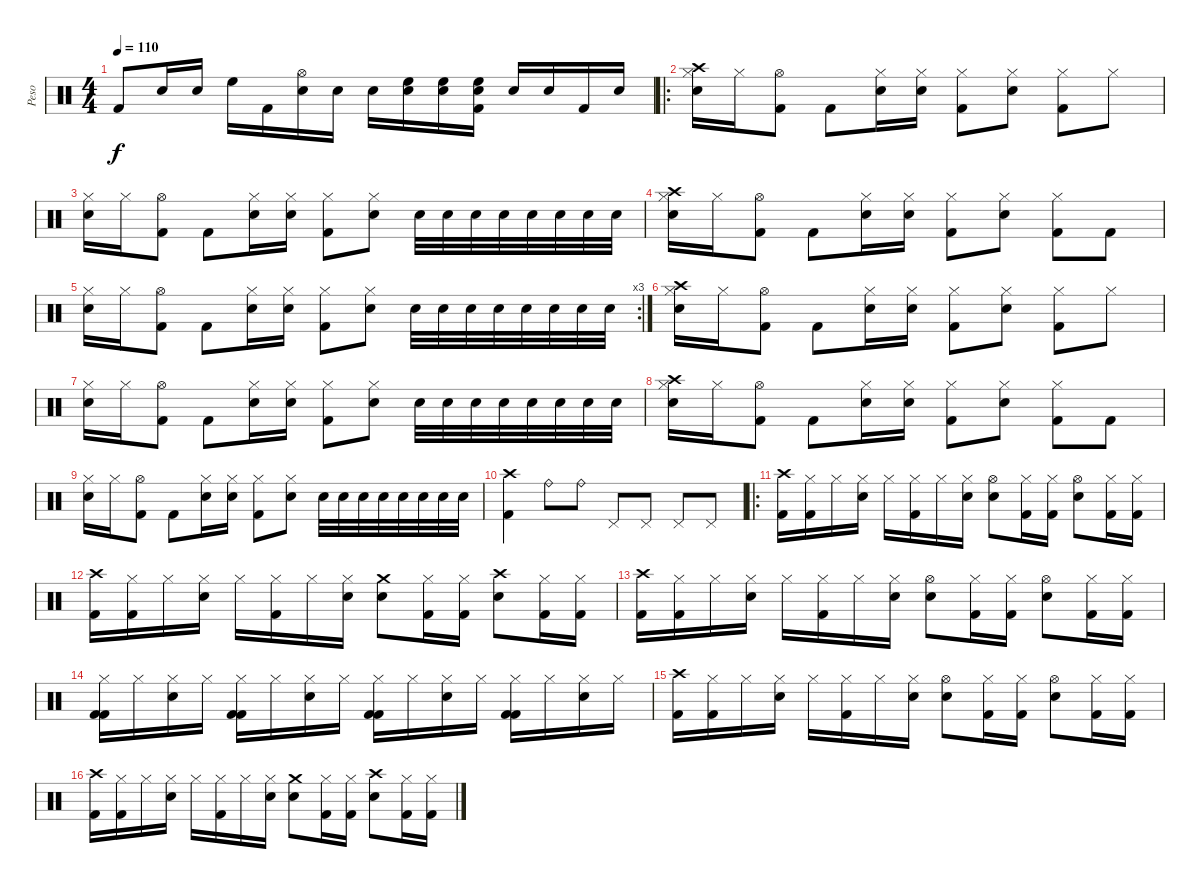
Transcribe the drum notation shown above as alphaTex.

\track ("Peso" "Peso") {instrument percussion}
\staff {score}
\articulation defaults
\ts (4 4)
\tempo 110
\clef neutral
\ks c "Kick (hit) 2".8{dy f} "Snare (hit) 2".16 "Snare (hit) 2".16 "High Floor Tom (hit)".16 "Kick (hit) 2".16
("Hi-Hat (open)" "Snare (hit) 2").16 "Snare (hit) 2".16 "Snare (hit) 2".16 ("Snare (hit) 2" "High Floor Tom (hit)").16 ("High Floor Tom (hit)" "Snare (hit) 2").16 ("Snare (hit) 2" "High Floor Tom (hit)" "Kick (hit) 2").16 "Snare (hit) 2".16 "Snare (hit) 2".16 "Kick (hit) 2".16 "Snare (hit) 2".16 |
\ro
("Crash high (hit)" "Hi-Hat (closed)" "Snare (hit) 2").16 "Hi-Hat (closed)".16 ("Hi-Hat (open)" "Kick (hit) 2").8 "Kick (hit) 2".8 ("Hi-Hat (closed)" "Snare (hit) 2").16 ("Hi-Hat (closed)" "Snare (hit) 2").16 ("Hi-Hat (closed)" "Kick (hit) 2").8 ("Hi-Hat (closed)" "Snare (hit) 2").8 ("Hi-Hat (closed)" "Kick (hit) 2").8 "Hi-Hat (closed)".8 |
("Hi-Hat (closed)" "Snare (hit) 2").16 "Hi-Hat (closed)".16 ("Hi-Hat (open)" "Kick (hit) 2").8 "Kick (hit) 2".8 ("Hi-Hat (closed)" "Snare (hit) 2").16 ("Hi-Hat (closed)" "Snare (hit) 2").16 ("Hi-Hat (closed)" "Kick (hit) 2").8 ("Hi-Hat (closed)" "Snare (hit) 2").8 "Snare (hit) 2".32 "Snare (hit) 2".32 "Snare (hit) 2".32 "Snare (hit) 2".32 "Snare (hit) 2".32 "Snare (hit) 2".32 "Snare (hit) 2".32 "Snare (hit) 2".32 |
("Crash high (hit)" "Hi-Hat (closed)" "Snare (hit) 2").16 "Hi-Hat (closed)".16 ("Hi-Hat (open)" "Kick (hit) 2").8 "Kick (hit) 2".8 ("Hi-Hat (closed)" "Snare (hit) 2").16 ("Hi-Hat (closed)" "Snare (hit) 2").16 ("Hi-Hat (closed)" "Kick (hit) 2").8 ("Hi-Hat (closed)" "Snare (hit) 2").8 ("Hi-Hat (closed)" "Kick (hit) 2").8 "Kick (hit) 2".8 |
\rc 3
("Hi-Hat (closed)" "Snare (hit) 2").16 "Hi-Hat (closed)".16 ("Hi-Hat (open)" "Kick (hit) 2").8 "Kick (hit) 2".8 ("Hi-Hat (closed)" "Snare (hit) 2").16 ("Hi-Hat (closed)" "Snare (hit) 2").16 ("Hi-Hat (closed)" "Kick (hit) 2").8 ("Hi-Hat (closed)" "Snare (hit) 2").8 "Snare (hit) 2".32 "Snare (hit) 2".32 "Snare (hit) 2".32 "Snare (hit) 2".32 "Snare (hit) 2".32 "Snare (hit) 2".32 "Snare (hit) 2".32 "Snare (hit) 2".32 |
("Crash high (hit)" "Hi-Hat (closed)" "Snare (hit) 2").16 "Hi-Hat (closed)".16 ("Hi-Hat (open)" "Kick (hit) 2").8 "Kick (hit) 2".8 ("Hi-Hat (closed)" "Snare (hit) 2").16 ("Hi-Hat (closed)" "Snare (hit) 2").16 ("Hi-Hat (closed)" "Kick (hit) 2").8 ("Hi-Hat (closed)" "Snare (hit) 2").8 ("Hi-Hat (closed)" "Kick (hit) 2").8 "Hi-Hat (closed)".8 |
("Hi-Hat (closed)" "Snare (hit) 2").16 "Hi-Hat (closed)".16 ("Hi-Hat (open)" "Kick (hit) 2").8 "Kick (hit) 2".8 ("Hi-Hat (closed)" "Snare (hit) 2").16 ("Hi-Hat (closed)" "Snare (hit) 2").16 ("Hi-Hat (closed)" "Kick (hit) 2").8 ("Hi-Hat (closed)" "Snare (hit) 2").8 "Snare (hit) 2".32 "Snare (hit) 2".32 "Snare (hit) 2".32 "Snare (hit) 2".32 "Snare (hit) 2".32 "Snare (hit) 2".32 "Snare (hit) 2".32 "Snare (hit) 2".32 |
("Crash high (hit)" "Hi-Hat (closed)" "Snare (hit) 2").16 "Hi-Hat (closed)".16 ("Hi-Hat (open)" "Kick (hit) 2").8 "Kick (hit) 2".8 ("Hi-Hat (closed)" "Snare (hit) 2").16 ("Hi-Hat (closed)" "Snare (hit) 2").16 ("Hi-Hat (closed)" "Kick (hit) 2").8 ("Hi-Hat (closed)" "Snare (hit) 2").8 ("Hi-Hat (closed)" "Kick (hit) 2").8 "Kick (hit) 2".8 |
("Hi-Hat (closed)" "Snare (hit) 2").16 "Hi-Hat (closed)".16 ("Hi-Hat (open)" "Kick (hit) 2").8 "Kick (hit) 2".8 ("Hi-Hat (closed)" "Snare (hit) 2").16 ("Hi-Hat (closed)" "Snare (hit) 2").16 ("Hi-Hat (closed)" "Kick (hit) 2").8 ("Hi-Hat (closed)" "Snare (hit) 2").8 "Snare (hit) 2".32 "Snare (hit) 2".32 "Snare (hit) 2".32 "Snare (hit) 2".32 "Snare (hit) 2".32 "Snare (hit) 2".32 "Snare (hit) 2".32 "Snare (hit) 2".32 |
("Crash high (hit)" "Kick (hit) 2").4 "Ride (bell)"{x}.8 "Ride (bell)"{x}.8 "Pedal Hi-Hat (hit)".8 "Pedal Hi-Hat (hit)".8 "Pedal Hi-Hat (hit)".8 "Pedal Hi-Hat (hit)".8 |
\ro
("Crash high (hit)" "Kick (hit) 2").16 ("Hi-Hat (closed)" "Kick (hit) 2").16 "Hi-Hat (closed)".16 ("Hi-Hat (closed)" "Snare (hit) 2").16 "Hi-Hat (closed)".16 ("Hi-Hat (closed)" "Kick (hit) 2").16 "Hi-Hat (closed)".16 ("Hi-Hat (closed)" "Snare (hit) 2").16 ("Hi-Hat (open)" "Snare (hit) 2").8 ("Hi-Hat (closed)" "Kick (hit) 2").16 ("Hi-Hat (closed)" "Kick (hit) 2").16 ("Hi-Hat (open)" "Snare (hit) 2").8 ("Hi-Hat (closed)" "Kick (hit) 2").16 ("Hi-Hat (closed)" "Kick (hit) 2").16 |
("Crash high (hit)" "Kick (hit) 2").16 ("Hi-Hat (closed)" "Kick (hit) 2").16 "Hi-Hat (closed)".16 ("Hi-Hat (closed)" "Snare (hit) 2").16 "Hi-Hat (closed)".16 ("Hi-Hat (closed)" "Kick (hit) 2").16 "Hi-Hat (closed)".16 ("Hi-Hat (closed)" "Snare (hit) 2").16 ("Crash medium (hit)" "Snare (hit) 2").8 ("Hi-Hat (closed)" "Kick (hit) 2").16 ("Hi-Hat (closed)" "Kick (hit) 2").16 ("Crash high (hit)" "Snare (hit) 2").8 ("Hi-Hat (closed)" "Kick (hit) 2").16 ("Hi-Hat (closed)" "Kick (hit) 2").16 |
("Crash high (hit)" "Kick (hit) 2").16 ("Hi-Hat (closed)" "Kick (hit) 2").16 "Hi-Hat (closed)".16 ("Hi-Hat (closed)" "Snare (hit) 2").16 "Hi-Hat (closed)".16 ("Hi-Hat (closed)" "Kick (hit) 2").16 "Hi-Hat (closed)".16 ("Hi-Hat (closed)" "Snare (hit) 2").16 ("Hi-Hat (open)" "Snare (hit) 2").8 ("Hi-Hat (closed)" "Kick (hit) 2").16 ("Hi-Hat (closed)" "Kick (hit) 2").16 ("Hi-Hat (open)" "Snare (hit) 2").8 ("Hi-Hat (closed)" "Kick (hit) 2").16 ("Hi-Hat (closed)" "Kick (hit) 2").16 |
("Hi-Hat (closed)" "Kick (hit) 2" "Kick (hit) 2").16 "Hi-Hat (closed)".16 ("Hi-Hat (closed)" "Snare (hit) 2").16 "Hi-Hat (closed)".16 ("Hi-Hat (closed)" "Kick (hit) 2" "Kick (hit) 2").16 "Hi-Hat (closed)".16 ("Hi-Hat (closed)" "Snare (hit) 2").16 "Hi-Hat (closed)".16 ("Hi-Hat (closed)" "Kick (hit) 2" "Kick (hit) 2").16 "Hi-Hat (closed)".16 ("Hi-Hat (closed)" "Snare (hit) 2").16 "Hi-Hat (closed)".16 ("Hi-Hat (closed)" "Kick (hit) 2" "Kick (hit) 2").16 "Hi-Hat (closed)".16 ("Hi-Hat (closed)" "Snare (hit) 2").16 "Hi-Hat (closed)".16 |
("Crash high (hit)" "Kick (hit) 2").16 ("Hi-Hat (closed)" "Kick (hit) 2").16 "Hi-Hat (closed)".16 ("Hi-Hat (closed)" "Snare (hit) 2").16 "Hi-Hat (closed)".16 ("Hi-Hat (closed)" "Kick (hit) 2").16 "Hi-Hat (closed)".16 ("Hi-Hat (closed)" "Snare (hit) 2").16 ("Hi-Hat (open)" "Snare (hit) 2").8 ("Hi-Hat (closed)" "Kick (hit) 2").16 ("Hi-Hat (closed)" "Kick (hit) 2").16 ("Hi-Hat (open)" "Snare (hit) 2").8 ("Hi-Hat (closed)" "Kick (hit) 2").16 ("Hi-Hat (closed)" "Kick (hit) 2").16 |
("Crash high (hit)" "Kick (hit) 2").16 ("Hi-Hat (closed)" "Kick (hit) 2").16 "Hi-Hat (closed)".16 ("Hi-Hat (closed)" "Snare (hit) 2").16 "Hi-Hat (closed)".16 ("Hi-Hat (closed)" "Kick (hit) 2").16 "Hi-Hat (closed)".16 ("Hi-Hat (closed)" "Snare (hit) 2").16 ("Crash medium (hit)" "Snare (hit) 2").8 ("Hi-Hat (closed)" "Kick (hit) 2").16 ("Hi-Hat (closed)" "Kick (hit) 2").16 ("Crash high (hit)" "Snare (hit) 2").8 ("Hi-Hat (closed)" "Kick (hit) 2").16 ("Hi-Hat (closed)" "Kick (hit) 2").16
